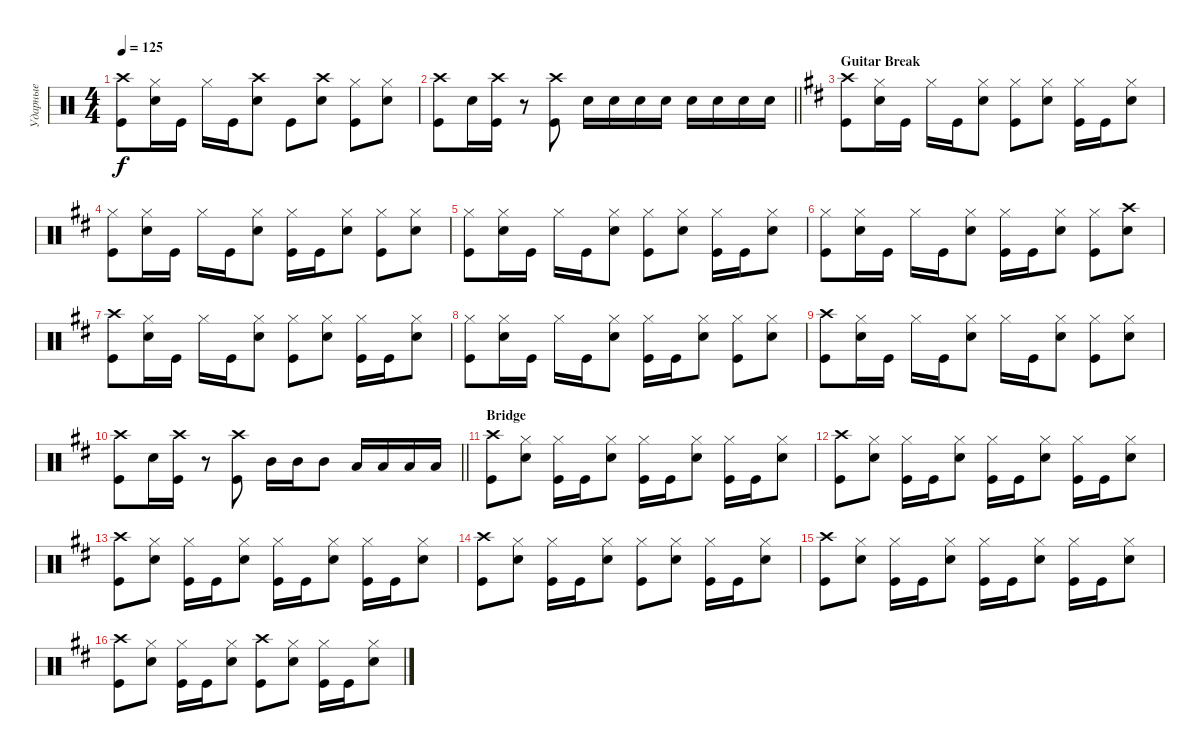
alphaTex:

\track ("Ударные" "Ударные") {instrument percussion}
\staff {score}
\articulation defaults
\ts (4 4)
\tempo 125
\clef neutral
\ks aminor
("Kick (hit)" "Crash high (hit)").8{dy f} ("Snare (hit) 2" "Hi-Hat (closed)").16 "Kick (hit)".16 "Hi-Hat (closed)".16 "Kick (hit)".16 ("Snare (hit) 2" "Crash high (hit)").8 "Kick (hit)".8 ("Snare (hit) 2" "Crash high (hit)").8 ("Kick (hit)" "Hi-Hat (closed)").8 ("Snare (hit) 2" "Hi-Hat (closed)").8 |
\barLineRight lightlight
("Kick (hit)" "Crash high (hit)").8 "Snare (hit) 2".16 ("Kick (hit)" "Crash high (hit)").16 r.8 ("Kick (hit)" "Crash high (hit)").8 "Snare (hit) 2".16 "Snare (hit) 2".16 "Snare (hit) 2".16 "Snare (hit) 2".16 "Snare (hit) 2".16 "Snare (hit) 2".16 "Snare (hit) 2".16 "Snare (hit) 2".16 |
\section ("" "Guitar Break")
\ks bminor
("Kick (hit)" "Crash high (hit)").8 ("Snare (hit) 2" "Hi-Hat (closed)").16 "Kick (hit)".16 "Hi-Hat (closed)".16 "Kick (hit)".16 ("Snare (hit) 2" "Hi-Hat (closed)").8 ("Kick (hit)" "Hi-Hat (closed)").8 ("Snare (hit) 2" "Hi-Hat (closed)").8 ("Kick (hit)" "Hi-Hat (closed)").16 "Kick (hit)".16 ("Snare (hit) 2" "Hi-Hat (closed)").8 |
("Kick (hit)" "Hi-Hat (closed)").8 ("Snare (hit) 2" "Hi-Hat (closed)").16 "Kick (hit)".16 "Hi-Hat (closed)".16 "Kick (hit)".16 ("Snare (hit) 2" "Hi-Hat (closed)").8 ("Kick (hit)" "Hi-Hat (closed)").16 "Kick (hit)".16 ("Snare (hit) 2" "Hi-Hat (closed)").8 ("Kick (hit)" "Hi-Hat (closed)").8 ("Snare (hit) 2" "Hi-Hat (closed)").8 |
("Kick (hit)" "Hi-Hat (closed)").8 ("Snare (hit) 2" "Hi-Hat (closed)").16 "Kick (hit)".16 "Hi-Hat (closed)".16 "Kick (hit)".16 ("Snare (hit) 2" "Hi-Hat (closed)").8 ("Kick (hit)" "Hi-Hat (closed)").8 ("Snare (hit) 2" "Hi-Hat (closed)").8 ("Kick (hit)" "Hi-Hat (closed)").16 "Kick (hit)".16 ("Snare (hit) 2" "Hi-Hat (closed)").8 |
("Kick (hit)" "Hi-Hat (closed)").8 ("Snare (hit) 2" "Hi-Hat (closed)").16 "Kick (hit)".16 "Hi-Hat (closed)".16 "Kick (hit)".16 ("Snare (hit) 2" "Hi-Hat (closed)").8 ("Kick (hit)" "Hi-Hat (closed)").16 "Kick (hit)".16 ("Snare (hit) 2" "Hi-Hat (closed)").8 ("Kick (hit)" "Hi-Hat (closed)").8 ("Snare (hit) 2" "Crash high (hit)").8 |
("Kick (hit)" "Crash high (hit)").8 ("Snare (hit) 2" "Hi-Hat (closed)").16 "Kick (hit)".16 "Hi-Hat (closed)".16 "Kick (hit)".16 ("Snare (hit) 2" "Hi-Hat (closed)").8 ("Kick (hit)" "Hi-Hat (closed)").8 ("Snare (hit) 2" "Hi-Hat (closed)").8 ("Kick (hit)" "Hi-Hat (closed)").16 "Kick (hit)".16 ("Snare (hit) 2" "Hi-Hat (closed)").8 |
("Kick (hit)" "Hi-Hat (closed)").8 ("Snare (hit) 2" "Hi-Hat (closed)").16 "Kick (hit)".16 "Hi-Hat (closed)".16 "Kick (hit)".16 ("Snare (hit) 2" "Hi-Hat (closed)").8 ("Kick (hit)" "Hi-Hat (closed)").16 "Kick (hit)".16 ("Snare (hit) 2" "Hi-Hat (closed)").8 ("Kick (hit)" "Hi-Hat (closed)").8 ("Snare (hit) 2" "Hi-Hat (closed)").8 |
("Kick (hit)" "Crash high (hit)").8 ("Snare (hit) 2" "Hi-Hat (closed)").16 "Kick (hit)".16 "Hi-Hat (closed)".16 "Kick (hit)".16 ("Snare (hit) 2" "Hi-Hat (closed)").8 "Hi-Hat (closed)".16 "Kick (hit)".16 ("Snare (hit) 2" "Hi-Hat (closed)").8 ("Kick (hit)" "Hi-Hat (closed)").8 ("Snare (hit) 2" "Hi-Hat (closed)").8 |
\barLineRight lightlight
("Kick (hit)" "Crash high (hit)").8 "Snare (hit) 2".16 ("Kick (hit)" "Crash high (hit)").16 r.8 ("Kick (hit)" "Crash high (hit)").8 "Mid Tom (hit)".16 "Mid Tom (hit)".16 "Mid Tom (hit)".8 "Low Tom (hit)".16 "Low Tom (hit)".16 "Low Tom (hit)".16 "Low Tom (hit)".16 |
\section ("" "Bridge")
("Kick (hit)" "Crash high (hit)").8 ("Snare (hit) 2" "Hi-Hat (closed)").8 ("Hi-Hat (closed)" "Kick (hit)").16 "Kick (hit)".16 ("Snare (hit) 2" "Hi-Hat (closed)").8 ("Kick (hit)" "Hi-Hat (closed)").16 "Kick (hit)".16 ("Snare (hit) 2" "Hi-Hat (closed)").8 ("Kick (hit)" "Hi-Hat (closed)").16 "Kick (hit)".16 ("Snare (hit) 2" "Hi-Hat (closed)").8 |
("Kick (hit)" "Crash high (hit)").8 ("Snare (hit) 2" "Hi-Hat (closed)").8 ("Hi-Hat (closed)" "Kick (hit)").16 "Kick (hit)".16 ("Snare (hit) 2" "Hi-Hat (closed)").8 ("Kick (hit)" "Hi-Hat (closed)").16 "Kick (hit)".16 ("Snare (hit) 2" "Hi-Hat (closed)").8 ("Kick (hit)" "Hi-Hat (closed)").16 "Kick (hit)".16 ("Snare (hit) 2" "Hi-Hat (closed)").8 |
("Kick (hit)" "Crash high (hit)").8 ("Snare (hit) 2" "Hi-Hat (closed)").8 ("Hi-Hat (closed)" "Kick (hit)").16 "Kick (hit)".16 ("Snare (hit) 2" "Hi-Hat (closed)").8 ("Kick (hit)" "Hi-Hat (closed)").16 "Kick (hit)".16 ("Snare (hit) 2" "Hi-Hat (closed)").8 ("Kick (hit)" "Hi-Hat (closed)").16 "Kick (hit)".16 ("Snare (hit) 2" "Hi-Hat (closed)").8 |
("Kick (hit)" "Crash high (hit)").8 ("Snare (hit) 2" "Hi-Hat (closed)").8 ("Hi-Hat (closed)" "Kick (hit)").16 "Kick (hit)".16 ("Snare (hit) 2" "Hi-Hat (closed)").8 ("Kick (hit)" "Hi-Hat (closed)").8 ("Snare (hit) 2" "Hi-Hat (closed)").8 ("Kick (hit)" "Hi-Hat (closed)").16 "Kick (hit)".16 ("Snare (hit) 2" "Hi-Hat (closed)").8 |
("Kick (hit)" "Crash high (hit)").8 ("Snare (hit) 2" "Hi-Hat (closed)").8 ("Hi-Hat (closed)" "Kick (hit)").16 "Kick (hit)".16 ("Snare (hit) 2" "Hi-Hat (closed)").8 ("Kick (hit)" "Hi-Hat (closed)").16 "Kick (hit)".16 ("Snare (hit) 2" "Hi-Hat (closed)").8 ("Kick (hit)" "Hi-Hat (closed)").16 "Kick (hit)".16 ("Snare (hit) 2" "Hi-Hat (closed)").8 |
("Kick (hit)" "Crash high (hit)").8 ("Snare (hit) 2" "Hi-Hat (closed)").8 ("Hi-Hat (closed)" "Kick (hit)").16 "Kick (hit)".16 ("Snare (hit) 2" "Hi-Hat (closed)").8 ("Kick (hit)" "Crash high (hit)").8 ("Snare (hit) 2" "Hi-Hat (closed)").8 ("Hi-Hat (closed)" "Kick (hit)").16 "Kick (hit)".16 ("Snare (hit) 2" "Hi-Hat (closed)").8
